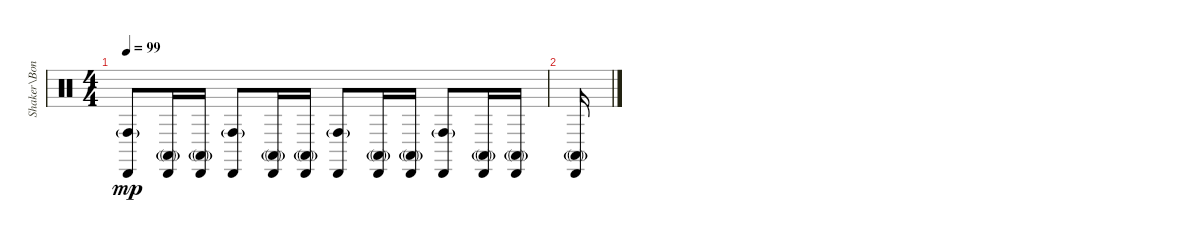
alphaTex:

\track ("Shaker\\Bongos" "Shaker\\Bon") {instrument percussion}
\staff {score}
\articulation defaults
\ts (4 4)
\tempo 99
\clef neutral
\ks c
("Cabasa (hit)" "Conga high (hit)"{g}).8{dy mp} ("Cabasa (hit)" "Conga high (mute)"{g}).16 ("Cabasa (hit)" "Conga high (mute)"{g}).16 ("Cabasa (hit)" "Conga high (hit)"{g}).8 ("Cabasa (hit)" "Conga high (mute)"{g}).16 ("Cabasa (hit)" "Conga high (mute)"{g}).16 ("Cabasa (hit)" "Conga high (hit)"{g}).8 ("Cabasa (hit)" "Conga high (mute)"{g}).16 ("Cabasa (hit)" "Conga high (mute)"{g}).16 ("Cabasa (hit)" "Conga high (hit)"{g}).8 ("Cabasa (hit)" "Conga high (mute)"{g}).16 ("Cabasa (hit)" "Conga high (mute)"{g}).16 |
("Cabasa (hit)" "Conga high (mute)"{g}).16
